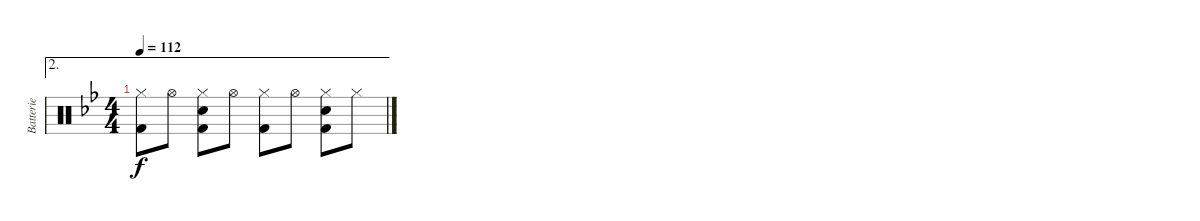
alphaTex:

\track ("Batterie" "Batterie") {instrument percussion}
\staff {score}
\articulation defaults
\ae 2
\ts (4 4)
\tempo 112
\clef neutral
\ks bb
("Hi-Hat (closed)" "Kick (hit) 2").8{dy f} "Hi-Hat (open)".8 ("Hi-Hat (closed)" "Snare (hit) 2" "Kick (hit) 2").8 "Hi-Hat (open)".8 ("Hi-Hat (closed)" "Kick (hit) 2").8 "Hi-Hat (open)".8 ("Hi-Hat (closed)" "Snare (hit) 2" "Kick (hit) 2").8 "Hi-Hat (closed)".8
